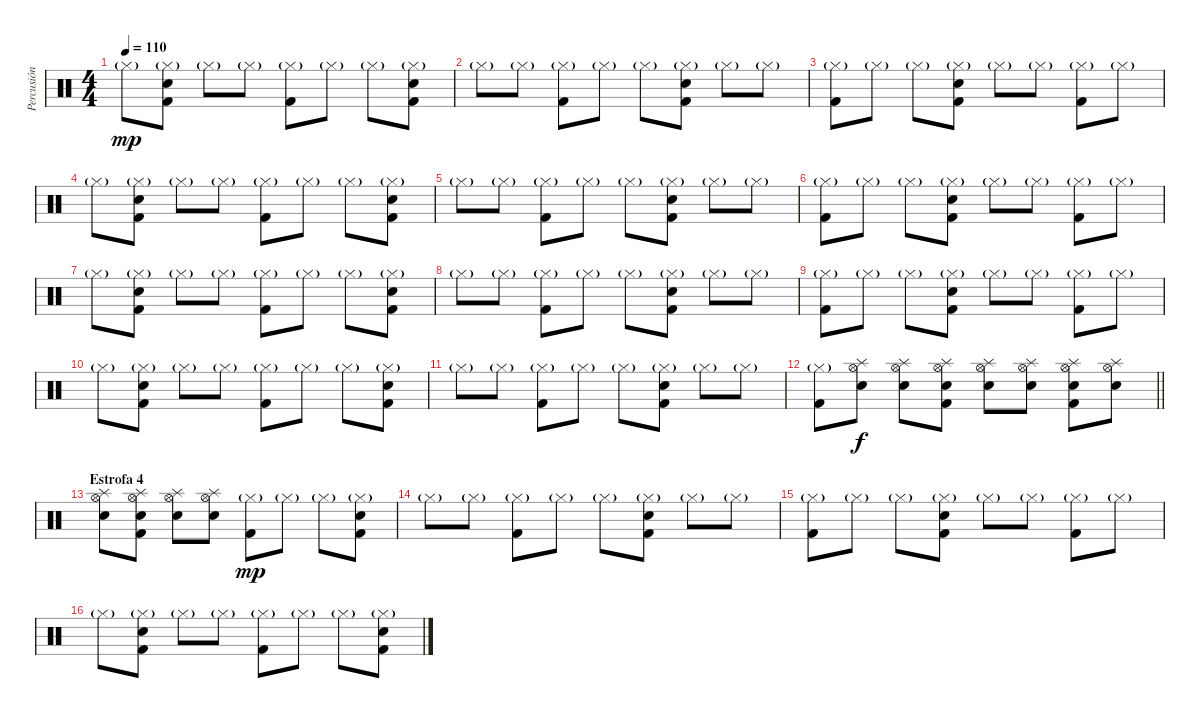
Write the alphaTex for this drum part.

\track ("Percusión" "Percusión") {instrument percussion}
\staff {score}
\articulation defaults
\ts (4 4)
\tempo 110
\clef neutral
\ks c "Hi-Hat (closed)"{g}.8{dy mp}
("Hi-Hat (closed)"{g} "Kick (hit) 2" "Snare (hit) 2").8 "Hi-Hat (closed)"{g}.8 "Hi-Hat (closed)"{g}.8 ("Hi-Hat (closed)"{g} "Kick (hit) 2").8 "Hi-Hat (closed)"{g}.8 "Hi-Hat (closed)"{g}.8 ("Hi-Hat (closed)"{g} "Kick (hit) 2" "Snare (hit) 2").8 |
"Hi-Hat (closed)"{g}.8 "Hi-Hat (closed)"{g}.8 ("Hi-Hat (closed)"{g} "Kick (hit) 2").8 "Hi-Hat (closed)"{g}.8 "Hi-Hat (closed)"{g}.8 ("Hi-Hat (closed)"{g} "Kick (hit) 2" "Snare (hit) 2").8 "Hi-Hat (closed)"{g}.8 "Hi-Hat (closed)"{g}.8 |
("Hi-Hat (closed)"{g} "Kick (hit) 2").8 "Hi-Hat (closed)"{g}.8 "Hi-Hat (closed)"{g}.8 ("Hi-Hat (closed)"{g} "Kick (hit) 2" "Snare (hit) 2").8 "Hi-Hat (closed)"{g}.8 "Hi-Hat (closed)"{g}.8 ("Hi-Hat (closed)"{g} "Kick (hit) 2").8 "Hi-Hat (closed)"{g}.8 |
"Hi-Hat (closed)"{g}.8 ("Hi-Hat (closed)"{g} "Kick (hit) 2" "Snare (hit) 2").8 "Hi-Hat (closed)"{g}.8 "Hi-Hat (closed)"{g}.8 ("Hi-Hat (closed)"{g} "Kick (hit) 2").8 "Hi-Hat (closed)"{g}.8 "Hi-Hat (closed)"{g}.8 ("Hi-Hat (closed)"{g} "Kick (hit) 2" "Snare (hit) 2").8 |
"Hi-Hat (closed)"{g}.8 "Hi-Hat (closed)"{g}.8 ("Hi-Hat (closed)"{g} "Kick (hit) 2").8 "Hi-Hat (closed)"{g}.8 "Hi-Hat (closed)"{g}.8 ("Hi-Hat (closed)"{g} "Kick (hit) 2" "Snare (hit) 2").8 "Hi-Hat (closed)"{g}.8 "Hi-Hat (closed)"{g}.8 |
("Hi-Hat (closed)"{g} "Kick (hit) 2").8 "Hi-Hat (closed)"{g}.8 "Hi-Hat (closed)"{g}.8 ("Hi-Hat (closed)"{g} "Kick (hit) 2" "Snare (hit) 2").8 "Hi-Hat (closed)"{g}.8 "Hi-Hat (closed)"{g}.8 ("Hi-Hat (closed)"{g} "Kick (hit) 2").8 "Hi-Hat (closed)"{g}.8 |
"Hi-Hat (closed)"{g}.8 ("Hi-Hat (closed)"{g} "Kick (hit) 2" "Snare (hit) 2").8 "Hi-Hat (closed)"{g}.8 "Hi-Hat (closed)"{g}.8 ("Hi-Hat (closed)"{g} "Kick (hit) 2").8 "Hi-Hat (closed)"{g}.8 "Hi-Hat (closed)"{g}.8 ("Hi-Hat (closed)"{g} "Kick (hit) 2" "Snare (hit) 2").8 |
"Hi-Hat (closed)"{g}.8 "Hi-Hat (closed)"{g}.8 ("Hi-Hat (closed)"{g} "Kick (hit) 2").8 "Hi-Hat (closed)"{g}.8 "Hi-Hat (closed)"{g}.8 ("Hi-Hat (closed)"{g} "Kick (hit) 2" "Snare (hit) 2").8 "Hi-Hat (closed)"{g}.8 "Hi-Hat (closed)"{g}.8 |
("Hi-Hat (closed)"{g} "Kick (hit) 2").8 "Hi-Hat (closed)"{g}.8 "Hi-Hat (closed)"{g}.8 ("Hi-Hat (closed)"{g} "Kick (hit) 2" "Snare (hit) 2").8 "Hi-Hat (closed)"{g}.8 "Hi-Hat (closed)"{g}.8 ("Hi-Hat (closed)"{g} "Kick (hit) 2").8 "Hi-Hat (closed)"{g}.8 |
"Hi-Hat (closed)"{g}.8 ("Hi-Hat (closed)"{g} "Kick (hit) 2" "Snare (hit) 2").8 "Hi-Hat (closed)"{g}.8 "Hi-Hat (closed)"{g}.8 ("Hi-Hat (closed)"{g} "Kick (hit) 2").8 "Hi-Hat (closed)"{g}.8 "Hi-Hat (closed)"{g}.8 ("Hi-Hat (closed)"{g} "Kick (hit) 2" "Snare (hit) 2").8 |
"Hi-Hat (closed)"{g}.8 "Hi-Hat (closed)"{g}.8 ("Hi-Hat (closed)"{g} "Kick (hit) 2").8 "Hi-Hat (closed)"{g}.8 "Hi-Hat (closed)"{g}.8 ("Hi-Hat (closed)"{g} "Kick (hit) 2" "Snare (hit) 2").8 "Hi-Hat (closed)"{g}.8 "Hi-Hat (closed)"{g}.8 |
\barLineRight lightlight
("Hi-Hat (closed)"{g} "Kick (hit) 2").8 ("Hi-Hat (open)" "Splash (hit)" "Snare (hit) 2").8{dy f} ("Hi-Hat (open)" "Splash (hit)" "Snare (hit) 2").8 ("Hi-Hat (open)" "Kick (hit) 2" "Splash (hit)" "Snare (hit) 2").8 ("Hi-Hat (open)" "Splash (hit)" "Snare (hit) 2").8 ("Hi-Hat (open)" "Splash (hit)" "Snare (hit) 2").8 ("Hi-Hat (open)" "Kick (hit) 2" "Splash (hit)" "Snare (hit) 2").8 ("Hi-Hat (open)" "Splash (hit)" "Snare (hit) 2").8 |
\section ("" "Estrofa 4")
("Hi-Hat (open)" "Splash (hit)" "Snare (hit) 2").8 ("Hi-Hat (open)" "Kick (hit) 2" "Splash (hit)" "Snare (hit) 2").8 ("Hi-Hat (open)" "Splash (hit)" "Snare (hit) 2").8 ("Hi-Hat (open)" "Splash (hit)" "Snare (hit) 2").8 ("Hi-Hat (closed)"{g} "Kick (hit) 2").8{dy mp} "Hi-Hat (closed)"{g}.8 "Hi-Hat (closed)"{g}.8 ("Hi-Hat (closed)"{g} "Kick (hit) 2" "Snare (hit) 2").8 |
"Hi-Hat (closed)"{g}.8 "Hi-Hat (closed)"{g}.8 ("Hi-Hat (closed)"{g} "Kick (hit) 2").8 "Hi-Hat (closed)"{g}.8 "Hi-Hat (closed)"{g}.8 ("Hi-Hat (closed)"{g} "Kick (hit) 2" "Snare (hit) 2").8 "Hi-Hat (closed)"{g}.8 "Hi-Hat (closed)"{g}.8 |
("Hi-Hat (closed)"{g} "Kick (hit) 2").8 "Hi-Hat (closed)"{g}.8 "Hi-Hat (closed)"{g}.8 ("Hi-Hat (closed)"{g} "Kick (hit) 2" "Snare (hit) 2").8 "Hi-Hat (closed)"{g}.8 "Hi-Hat (closed)"{g}.8 ("Hi-Hat (closed)"{g} "Kick (hit) 2").8 "Hi-Hat (closed)"{g}.8 |
"Hi-Hat (closed)"{g}.8 ("Hi-Hat (closed)"{g} "Kick (hit) 2" "Snare (hit) 2").8 "Hi-Hat (closed)"{g}.8 "Hi-Hat (closed)"{g}.8 ("Hi-Hat (closed)"{g} "Kick (hit) 2").8 "Hi-Hat (closed)"{g}.8 "Hi-Hat (closed)"{g}.8 ("Hi-Hat (closed)"{g} "Kick (hit) 2" "Snare (hit) 2").8
